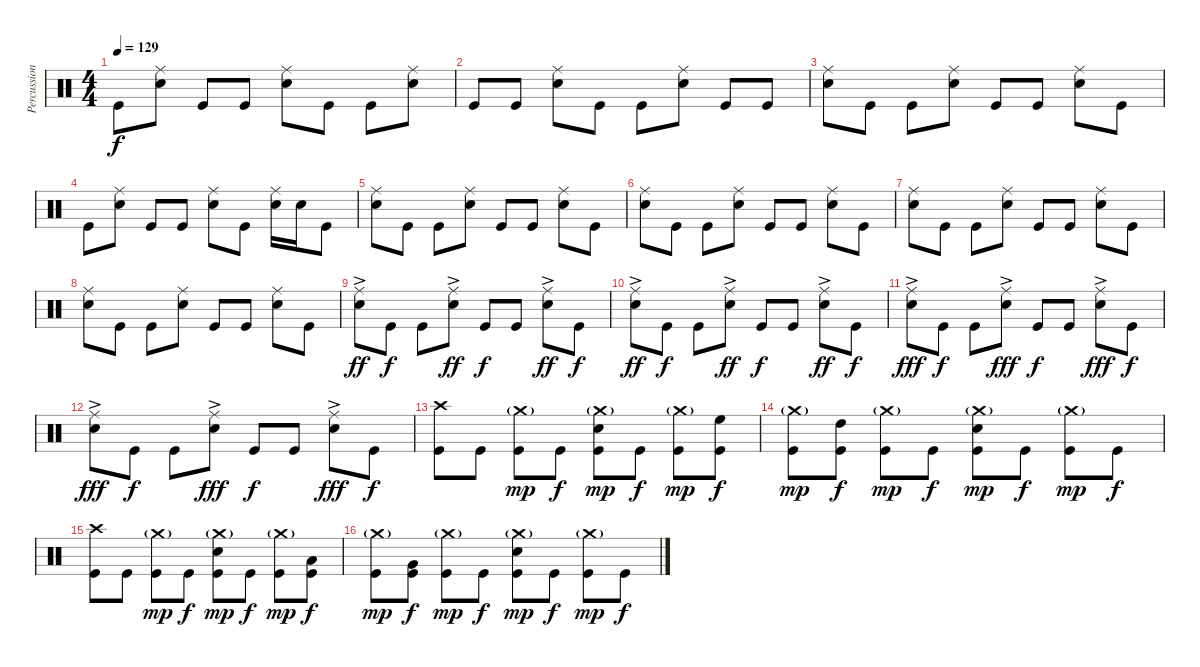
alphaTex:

\track ("Percussion" "Percussion") {instrument percussion}
\staff {score}
\articulation defaults
\ts (4 4)
\tempo 129
\clef neutral
\ks c "Kick (hit)".8{dy f}
("Ride (middle)" "Electric Snare (hit)").8 "Kick (hit)".8 "Kick (hit)".8 ("Ride (middle)" "Electric Snare (hit)").8 "Kick (hit)".8 "Kick (hit)".8 ("Ride (middle)" "Electric Snare (hit)").8 |
"Kick (hit)".8 "Kick (hit)".8 ("Ride (middle)" "Electric Snare (hit)").8 "Kick (hit)".8 "Kick (hit)".8 ("Ride (middle)" "Electric Snare (hit)").8 "Kick (hit)".8 "Kick (hit)".8 |
("Ride (middle)" "Electric Snare (hit)").8 "Kick (hit)".8 "Kick (hit)".8 ("Ride (middle)" "Electric Snare (hit)").8 "Kick (hit)".8 "Kick (hit)".8 ("Ride (middle)" "Electric Snare (hit)").8 "Kick (hit)".8 |
"Kick (hit)".8 ("Ride (middle)" "Electric Snare (hit)").8 "Kick (hit)".8 "Kick (hit)".8 ("Ride (middle)" "Electric Snare (hit)").8 "Kick (hit)".8 ("Ride (middle)" "Electric Snare (hit)").16 "Electric Snare (hit)".16 "Kick (hit)".8 |
("Ride (middle)" "Electric Snare (hit)").8 "Kick (hit)".8 "Kick (hit)".8 ("Ride (middle)" "Electric Snare (hit)").8 "Kick (hit)".8 "Kick (hit)".8 ("Ride (middle)" "Electric Snare (hit)").8 "Kick (hit)".8 |
("Ride (middle)" "Electric Snare (hit)").8 "Kick (hit)".8 "Kick (hit)".8 ("Ride (middle)" "Electric Snare (hit)").8 "Kick (hit)".8 "Kick (hit)".8 ("Ride (middle)" "Electric Snare (hit)").8 "Kick (hit)".8 |
("Ride (middle)" "Electric Snare (hit)").8 "Kick (hit)".8 "Kick (hit)".8 ("Ride (middle)" "Electric Snare (hit)").8 "Kick (hit)".8 "Kick (hit)".8 ("Ride (middle)" "Electric Snare (hit)").8 "Kick (hit)".8 |
("Ride (middle)" "Electric Snare (hit)").8 "Kick (hit)".8 "Kick (hit)".8 ("Ride (middle)" "Electric Snare (hit)").8 "Kick (hit)".8 "Kick (hit)".8 ("Ride (middle)" "Electric Snare (hit)").8 "Kick (hit)".8 |
("Ride (middle)"{ac} "Electric Snare (hit)").8{dy ff} "Kick (hit)".8{dy f} "Kick (hit)".8 ("Ride (middle)"{ac} "Electric Snare (hit)").8{dy ff} "Kick (hit)".8{dy f} "Kick (hit)".8 ("Ride (middle)"{ac} "Electric Snare (hit)").8{dy ff} "Kick (hit)".8{dy f} |
("Ride (middle)"{ac} "Electric Snare (hit)").8{dy ff} "Kick (hit)".8{dy f} "Kick (hit)".8 ("Ride (middle)"{ac} "Electric Snare (hit)").8{dy ff} "Kick (hit)".8{dy f} "Kick (hit)".8 ("Ride (middle)"{ac} "Electric Snare (hit)").8{dy ff} "Kick (hit)".8{dy f} |
("Ride (middle)"{ac} "Electric Snare (hit)").8{dy fff} "Kick (hit)".8{dy f} "Kick (hit)".8 ("Ride (middle)"{ac} "Electric Snare (hit)").8{dy fff} "Kick (hit)".8{dy f} "Kick (hit)".8 ("Ride (middle)"{ac} "Electric Snare (hit)").8{dy fff} "Kick (hit)".8{dy f} |
("Ride (middle)"{ac} "Electric Snare (hit)").8{dy fff} "Kick (hit)".8{dy f} "Kick (hit)".8 ("Ride (middle)"{ac} "Electric Snare (hit)").8{dy fff} "Kick (hit)".8{dy f} "Kick (hit)".8 ("Ride (middle)"{ac} "Electric Snare (hit)").8{dy fff} "Kick (hit)".8{dy f} |
("Crash high (hit)" "Kick (hit)").8 "Kick (hit)".8 ("Crash medium (hit)"{g} "Kick (hit)").8{dy mp} "Kick (hit)".8{dy f} ("Crash medium (hit)"{g} "Electric Snare (hit)" "Kick (hit)").8{dy mp} "Kick (hit)".8{dy f} ("Crash medium (hit)"{g} "Kick (hit)").8{dy mp} ("High Floor Tom (hit)" "Kick (hit)").8{dy f} |
("Crash medium (hit)"{g} "Kick (hit)").8{dy mp} ("High Tom (hit)" "Kick (hit)").8{dy f} ("Crash medium (hit)"{g} "Kick (hit)").8{dy mp} "Kick (hit)".8{dy f} ("Crash medium (hit)"{g} "Electric Snare (hit)" "Kick (hit)").8{dy mp} "Kick (hit)".8{dy f} ("Crash medium (hit)"{g} "Kick (hit)").8{dy mp} "Kick (hit)".8{dy f} |
("Crash high (hit)" "Kick (hit)").8 "Kick (hit)".8 ("Crash medium (hit)"{g} "Kick (hit)").8{dy mp} "Kick (hit)".8{dy f} ("Crash medium (hit)"{g} "Electric Snare (hit)" "Kick (hit)").8{dy mp} "Kick (hit)".8{dy f} ("Crash medium (hit)"{g} "Kick (hit)").8{dy mp} ("Low Tom (hit)" "Kick (hit)").8{dy f} |
("Crash medium (hit)"{g} "Kick (hit)").8{dy mp} ("Very Low Tom (hit)" "Kick (hit)").8{dy f} ("Crash medium (hit)"{g} "Kick (hit)").8{dy mp} "Kick (hit)".8{dy f} ("Crash medium (hit)"{g} "Electric Snare (hit)" "Kick (hit)").8{dy mp} "Kick (hit)".8{dy f} ("Crash medium (hit)"{g} "Kick (hit)").8{dy mp} "Kick (hit)".8{dy f}
